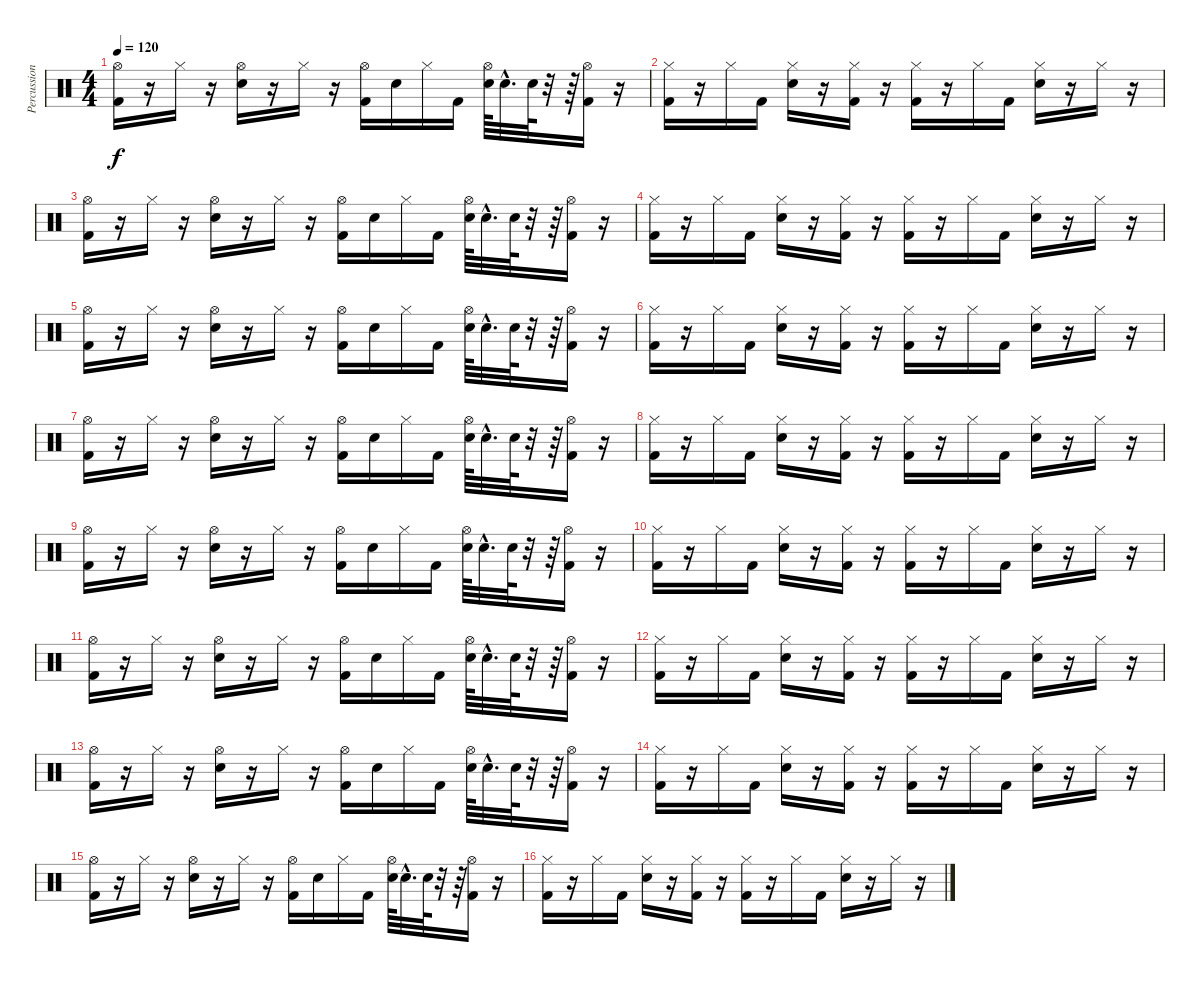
\track ("Percussion" "Percussion") {instrument percussion}
\staff {score}
\articulation defaults
\ts (4 4)
\tempo 120
\clef neutral
\ks c
("Hi-Hat (open)" "Kick (hit) 2").16{dy f} r.16 "Hi-Hat (closed)".16 r.16 ("Hi-Hat (open)" "Electric Snare (hit)").16 r.16 "Hi-Hat (closed)".16 r.16 ("Kick (hit) 2" "Hi-Hat (open)").16 "Electric Snare (hit)".16 "Hi-Hat (closed)".16 "Kick (hit) 2".16 ("Hi-Hat (open)" "Electric Snare (hit)").64 "Electric Snare (hit)"{hac}.32{d} "Electric Snare (hit)".64 r.32 r.64 ("Kick (hit) 2" "Hi-Hat (open)").16 r.16 |
("Kick (hit) 2" "Hi-Hat (closed)").16 r.16 "Hi-Hat (closed)".16 "Kick (hit) 2".16 ("Electric Snare (hit)" "Hi-Hat (closed)").16 r.16 ("Kick (hit) 2" "Hi-Hat (closed)").16 r.16 ("Kick (hit) 2" "Hi-Hat (closed)").16 r.16 "Hi-Hat (closed)".16 "Kick (hit) 2".16 ("Electric Snare (hit)" "Hi-Hat (closed)").16 r.16 "Hi-Hat (closed)".16 r.16 |
("Hi-Hat (open)" "Kick (hit) 2").16 r.16 "Hi-Hat (closed)".16 r.16 ("Hi-Hat (open)" "Electric Snare (hit)").16 r.16 "Hi-Hat (closed)".16 r.16 ("Kick (hit) 2" "Hi-Hat (open)").16 "Electric Snare (hit)".16 "Hi-Hat (closed)".16 "Kick (hit) 2".16 ("Hi-Hat (open)" "Electric Snare (hit)").64 "Electric Snare (hit)"{hac}.32{d} "Electric Snare (hit)".64 r.32 r.64 ("Kick (hit) 2" "Hi-Hat (open)").16 r.16 |
("Kick (hit) 2" "Hi-Hat (closed)").16 r.16 "Hi-Hat (closed)".16 "Kick (hit) 2".16 ("Electric Snare (hit)" "Hi-Hat (closed)").16 r.16 ("Kick (hit) 2" "Hi-Hat (closed)").16 r.16 ("Kick (hit) 2" "Hi-Hat (closed)").16 r.16 "Hi-Hat (closed)".16 "Kick (hit) 2".16 ("Electric Snare (hit)" "Hi-Hat (closed)").16 r.16 "Hi-Hat (closed)".16 r.16 |
("Hi-Hat (open)" "Kick (hit) 2").16 r.16 "Hi-Hat (closed)".16 r.16 ("Hi-Hat (open)" "Electric Snare (hit)").16 r.16 "Hi-Hat (closed)".16 r.16 ("Kick (hit) 2" "Hi-Hat (open)").16 "Electric Snare (hit)".16 "Hi-Hat (closed)".16 "Kick (hit) 2".16 ("Hi-Hat (open)" "Electric Snare (hit)").64 "Electric Snare (hit)"{hac}.32{d} "Electric Snare (hit)".64 r.32 r.64 ("Kick (hit) 2" "Hi-Hat (open)").16 r.16 |
("Kick (hit) 2" "Hi-Hat (closed)").16 r.16 "Hi-Hat (closed)".16 "Kick (hit) 2".16 ("Electric Snare (hit)" "Hi-Hat (closed)").16 r.16 ("Kick (hit) 2" "Hi-Hat (closed)").16 r.16 ("Kick (hit) 2" "Hi-Hat (closed)").16 r.16 "Hi-Hat (closed)".16 "Kick (hit) 2".16 ("Electric Snare (hit)" "Hi-Hat (closed)").16 r.16 "Hi-Hat (closed)".16 r.16 |
("Hi-Hat (open)" "Kick (hit) 2").16 r.16 "Hi-Hat (closed)".16 r.16 ("Hi-Hat (open)" "Electric Snare (hit)").16 r.16 "Hi-Hat (closed)".16 r.16 ("Kick (hit) 2" "Hi-Hat (open)").16 "Electric Snare (hit)".16 "Hi-Hat (closed)".16 "Kick (hit) 2".16 ("Hi-Hat (open)" "Electric Snare (hit)").64 "Electric Snare (hit)"{hac}.32{d} "Electric Snare (hit)".64 r.32 r.64 ("Kick (hit) 2" "Hi-Hat (open)").16 r.16 |
("Kick (hit) 2" "Hi-Hat (closed)").16 r.16 "Hi-Hat (closed)".16 "Kick (hit) 2".16 ("Electric Snare (hit)" "Hi-Hat (closed)").16 r.16 ("Kick (hit) 2" "Hi-Hat (closed)").16 r.16 ("Kick (hit) 2" "Hi-Hat (closed)").16 r.16 "Hi-Hat (closed)".16 "Kick (hit) 2".16 ("Electric Snare (hit)" "Hi-Hat (closed)").16 r.16 "Hi-Hat (closed)".16 r.16 |
("Hi-Hat (open)" "Kick (hit) 2").16 r.16 "Hi-Hat (closed)".16 r.16 ("Hi-Hat (open)" "Electric Snare (hit)").16 r.16 "Hi-Hat (closed)".16 r.16 ("Kick (hit) 2" "Hi-Hat (open)").16 "Electric Snare (hit)".16 "Hi-Hat (closed)".16 "Kick (hit) 2".16 ("Hi-Hat (open)" "Electric Snare (hit)").64 "Electric Snare (hit)"{hac}.32{d} "Electric Snare (hit)".64 r.32 r.64 ("Kick (hit) 2" "Hi-Hat (open)").16 r.16 |
("Kick (hit) 2" "Hi-Hat (closed)").16 r.16 "Hi-Hat (closed)".16 "Kick (hit) 2".16 ("Electric Snare (hit)" "Hi-Hat (closed)").16 r.16 ("Kick (hit) 2" "Hi-Hat (closed)").16 r.16 ("Kick (hit) 2" "Hi-Hat (closed)").16 r.16 "Hi-Hat (closed)".16 "Kick (hit) 2".16 ("Electric Snare (hit)" "Hi-Hat (closed)").16 r.16 "Hi-Hat (closed)".16 r.16 |
("Hi-Hat (open)" "Kick (hit) 2").16 r.16 "Hi-Hat (closed)".16 r.16 ("Hi-Hat (open)" "Electric Snare (hit)").16 r.16 "Hi-Hat (closed)".16 r.16 ("Kick (hit) 2" "Hi-Hat (open)").16 "Electric Snare (hit)".16 "Hi-Hat (closed)".16 "Kick (hit) 2".16 ("Hi-Hat (open)" "Electric Snare (hit)").64 "Electric Snare (hit)"{hac}.32{d} "Electric Snare (hit)".64 r.32 r.64 ("Kick (hit) 2" "Hi-Hat (open)").16 r.16 |
("Kick (hit) 2" "Hi-Hat (closed)").16 r.16 "Hi-Hat (closed)".16 "Kick (hit) 2".16 ("Electric Snare (hit)" "Hi-Hat (closed)").16 r.16 ("Kick (hit) 2" "Hi-Hat (closed)").16 r.16 ("Kick (hit) 2" "Hi-Hat (closed)").16 r.16 "Hi-Hat (closed)".16 "Kick (hit) 2".16 ("Electric Snare (hit)" "Hi-Hat (closed)").16 r.16 "Hi-Hat (closed)".16 r.16 |
("Hi-Hat (open)" "Kick (hit) 2").16 r.16 "Hi-Hat (closed)".16 r.16 ("Hi-Hat (open)" "Electric Snare (hit)").16 r.16 "Hi-Hat (closed)".16 r.16 ("Kick (hit) 2" "Hi-Hat (open)").16 "Electric Snare (hit)".16 "Hi-Hat (closed)".16 "Kick (hit) 2".16 ("Hi-Hat (open)" "Electric Snare (hit)").64 "Electric Snare (hit)"{hac}.32{d} "Electric Snare (hit)".64 r.32 r.64 ("Kick (hit) 2" "Hi-Hat (open)").16 r.16 |
("Kick (hit) 2" "Hi-Hat (closed)").16 r.16 "Hi-Hat (closed)".16 "Kick (hit) 2".16 ("Electric Snare (hit)" "Hi-Hat (closed)").16 r.16 ("Kick (hit) 2" "Hi-Hat (closed)").16 r.16 ("Kick (hit) 2" "Hi-Hat (closed)").16 r.16 "Hi-Hat (closed)".16 "Kick (hit) 2".16 ("Electric Snare (hit)" "Hi-Hat (closed)").16 r.16 "Hi-Hat (closed)".16 r.16 |
("Hi-Hat (open)" "Kick (hit) 2").16 r.16 "Hi-Hat (closed)".16 r.16 ("Hi-Hat (open)" "Electric Snare (hit)").16 r.16 "Hi-Hat (closed)".16 r.16 ("Kick (hit) 2" "Hi-Hat (open)").16 "Electric Snare (hit)".16 "Hi-Hat (closed)".16 "Kick (hit) 2".16 ("Hi-Hat (open)" "Electric Snare (hit)").64 "Electric Snare (hit)"{hac}.32{d} "Electric Snare (hit)".64 r.32 r.64 ("Kick (hit) 2" "Hi-Hat (open)").16 r.16 |
("Kick (hit) 2" "Hi-Hat (closed)").16 r.16 "Hi-Hat (closed)".16 "Kick (hit) 2".16 ("Electric Snare (hit)" "Hi-Hat (closed)").16 r.16 ("Kick (hit) 2" "Hi-Hat (closed)").16 r.16 ("Kick (hit) 2" "Hi-Hat (closed)").16 r.16 "Hi-Hat (closed)".16 "Kick (hit) 2".16 ("Electric Snare (hit)" "Hi-Hat (closed)").16 r.16 "Hi-Hat (closed)".16 r.16
